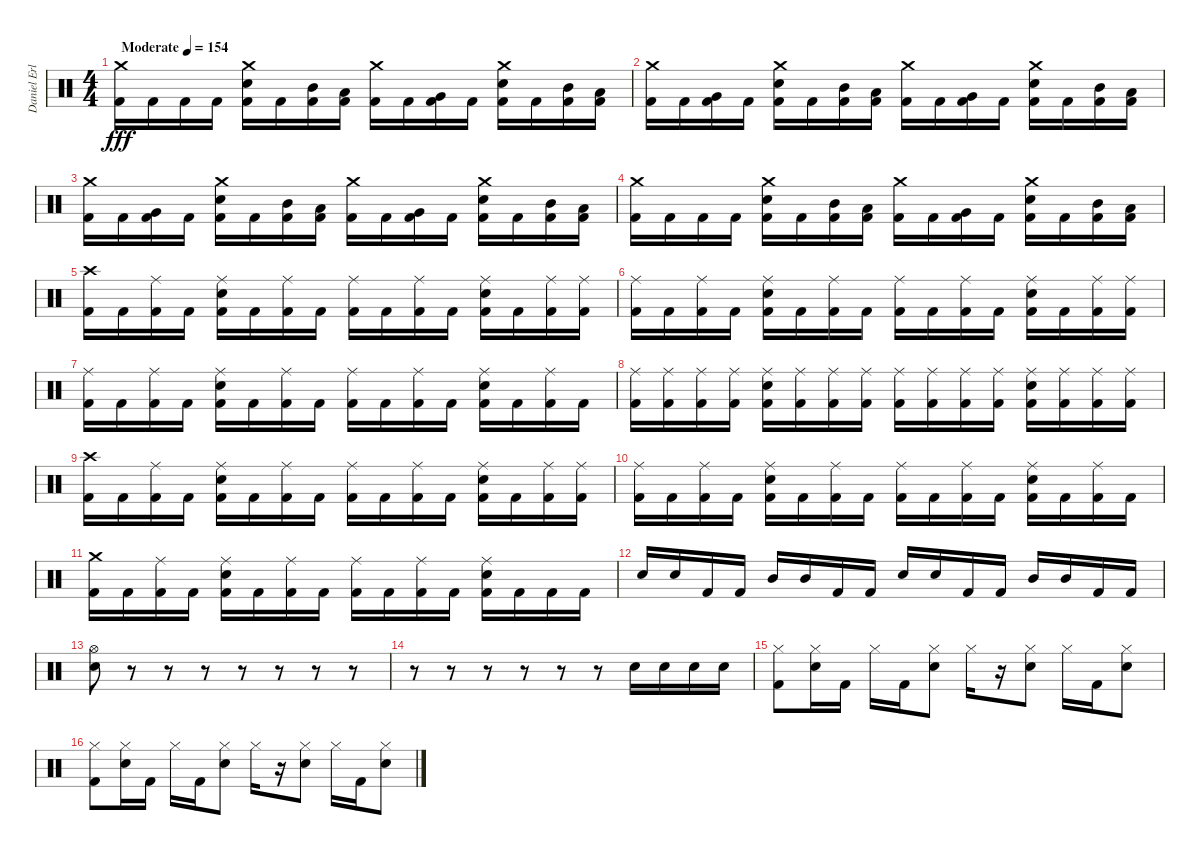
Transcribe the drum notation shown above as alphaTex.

\track ("Daniel Erlandsson" "Daniel Erl") {instrument percussion}
\staff {score}
\articulation defaults
\ts (4 4)
\tempo (154 "Moderate")
\clef neutral
\ks c
("Crash medium (hit)" "Kick (hit) 2").16{dy fff} "Kick (hit) 2".16 "Kick (hit) 2".16 "Kick (hit) 2".16 ("Crash medium (hit)" "Electric Snare (hit)" "Kick (hit) 2").16 "Kick (hit) 2".16 ("Mid Tom (hit)" "Kick (hit) 2").16 ("Low Tom (hit)" "Kick (hit) 2").16 ("Crash medium (hit)" "Kick (hit) 2").16 "Kick (hit) 2".16 ("Very Low Tom (hit)" "Kick (hit) 2").16 "Kick (hit) 2".16 ("Crash medium (hit)" "Electric Snare (hit)" "Kick (hit) 2").16 "Kick (hit) 2".16 ("Mid Tom (hit)" "Kick (hit) 2").16 ("Low Tom (hit)" "Kick (hit) 2").16 |
("Crash medium (hit)" "Kick (hit) 2").16 "Kick (hit) 2".16 ("Very Low Tom (hit)" "Kick (hit) 2").16 "Kick (hit) 2".16 ("Crash medium (hit)" "Electric Snare (hit)" "Kick (hit) 2").16 "Kick (hit) 2".16 ("Mid Tom (hit)" "Kick (hit) 2").16 ("Low Tom (hit)" "Kick (hit) 2").16 ("Crash medium (hit)" "Kick (hit) 2").16 "Kick (hit) 2".16 ("Very Low Tom (hit)" "Kick (hit) 2").16 "Kick (hit) 2".16 ("Crash medium (hit)" "Electric Snare (hit)" "Kick (hit) 2").16 "Kick (hit) 2".16 ("Mid Tom (hit)" "Kick (hit) 2").16 ("Low Tom (hit)" "Kick (hit) 2").16 |
("Crash medium (hit)" "Kick (hit) 2").16 "Kick (hit) 2".16 ("Very Low Tom (hit)" "Kick (hit) 2").16 "Kick (hit) 2".16 ("Crash medium (hit)" "Electric Snare (hit)" "Kick (hit) 2").16 "Kick (hit) 2".16 ("Mid Tom (hit)" "Kick (hit) 2").16 ("Low Tom (hit)" "Kick (hit) 2").16 ("Crash medium (hit)" "Kick (hit) 2").16 "Kick (hit) 2".16 ("Very Low Tom (hit)" "Kick (hit) 2").16 "Kick (hit) 2".16 ("Crash medium (hit)" "Electric Snare (hit)" "Kick (hit) 2").16 "Kick (hit) 2".16 ("Mid Tom (hit)" "Kick (hit) 2").16 ("Low Tom (hit)" "Kick (hit) 2").16 |
("Crash medium (hit)" "Kick (hit) 2").16 "Kick (hit) 2".16 "Kick (hit) 2".16 "Kick (hit) 2".16 ("Crash medium (hit)" "Electric Snare (hit)" "Kick (hit) 2").16 "Kick (hit) 2".16 ("Mid Tom (hit)" "Kick (hit) 2").16 ("Low Tom (hit)" "Kick (hit) 2").16 ("Crash medium (hit)" "Kick (hit) 2").16 "Kick (hit) 2".16 ("Very Low Tom (hit)" "Kick (hit) 2").16 "Kick (hit) 2".16 ("Crash medium (hit)" "Electric Snare (hit)" "Kick (hit) 2").16 "Kick (hit) 2".16 ("Mid Tom (hit)" "Kick (hit) 2").16 ("Low Tom (hit)" "Kick (hit) 2").16 |
("Crash high (hit)" "Kick (hit) 2").16 "Kick (hit) 2".16 ("Ride (middle)" "Kick (hit) 2").16 "Kick (hit) 2".16 ("Ride (middle)" "Electric Snare (hit)" "Kick (hit) 2").16 "Kick (hit) 2".16 ("Ride (middle)" "Kick (hit) 2").16 "Kick (hit) 2".16 ("Ride (middle)" "Kick (hit) 2").16 "Kick (hit) 2".16 ("Ride (middle)" "Kick (hit) 2").16 "Kick (hit) 2".16 ("Ride (middle)" "Electric Snare (hit)" "Kick (hit) 2").16 "Kick (hit) 2".16 ("Ride (middle)" "Kick (hit) 2").16 ("Ride (middle)" "Kick (hit) 2").16 |
("Ride (middle)" "Kick (hit) 2").16 "Kick (hit) 2".16 ("Ride (middle)" "Kick (hit) 2").16 "Kick (hit) 2".16 ("Ride (middle)" "Electric Snare (hit)" "Kick (hit) 2").16 "Kick (hit) 2".16 ("Ride (middle)" "Kick (hit) 2").16 "Kick (hit) 2".16 ("Ride (middle)" "Kick (hit) 2").16 "Kick (hit) 2".16 ("Ride (middle)" "Kick (hit) 2").16 "Kick (hit) 2".16 ("Ride (middle)" "Electric Snare (hit)" "Kick (hit) 2").16 "Kick (hit) 2".16 ("Ride (middle)" "Kick (hit) 2").16 ("Ride (middle)" "Kick (hit) 2").16 |
("Ride (middle)" "Kick (hit) 2").16 "Kick (hit) 2".16 ("Ride (middle)" "Kick (hit) 2").16 "Kick (hit) 2".16 ("Ride (middle)" "Electric Snare (hit)" "Kick (hit) 2").16 "Kick (hit) 2".16 ("Ride (middle)" "Kick (hit) 2").16 "Kick (hit) 2".16 ("Ride (middle)" "Kick (hit) 2").16 "Kick (hit) 2".16 ("Ride (middle)" "Kick (hit) 2").16 "Kick (hit) 2".16 ("Ride (middle)" "Electric Snare (hit)" "Kick (hit) 2").16 "Kick (hit) 2".16 ("Ride (middle)" "Kick (hit) 2").16 "Kick (hit) 2".16 |
("Ride (middle)" "Kick (hit) 2").16 ("Ride (middle)" "Kick (hit) 2").16 ("Ride (middle)" "Kick (hit) 2").16 ("Ride (middle)" "Kick (hit) 2").16 ("Ride (middle)" "Electric Snare (hit)" "Kick (hit) 2").16 ("Ride (middle)" "Kick (hit) 2").16 ("Ride (middle)" "Kick (hit) 2").16 ("Ride (middle)" "Kick (hit) 2").16 ("Ride (middle)" "Kick (hit) 2").16 ("Ride (middle)" "Kick (hit) 2").16 ("Ride (middle)" "Kick (hit) 2").16 ("Ride (middle)" "Kick (hit) 2").16 ("Ride (middle)" "Electric Snare (hit)" "Kick (hit) 2").16 ("Ride (middle)" "Kick (hit) 2").16 ("Ride (middle)" "Kick (hit) 2").16 ("Ride (middle)" "Kick (hit) 2").16 |
("Crash high (hit)" "Kick (hit) 2").16 "Kick (hit) 2".16 ("Ride (middle)" "Kick (hit) 2").16 "Kick (hit) 2".16 ("Ride (middle)" "Electric Snare (hit)" "Kick (hit) 2").16 "Kick (hit) 2".16 ("Ride (middle)" "Kick (hit) 2").16 "Kick (hit) 2".16 ("Ride (middle)" "Kick (hit) 2").16 "Kick (hit) 2".16 ("Ride (middle)" "Kick (hit) 2").16 "Kick (hit) 2".16 ("Ride (middle)" "Electric Snare (hit)" "Kick (hit) 2").16 "Kick (hit) 2".16 ("Ride (middle)" "Kick (hit) 2").16 ("Ride (middle)" "Kick (hit) 2").16 |
("Ride (middle)" "Kick (hit) 2").16 "Kick (hit) 2".16 ("Ride (middle)" "Kick (hit) 2").16 "Kick (hit) 2".16 ("Ride (middle)" "Electric Snare (hit)" "Kick (hit) 2").16 "Kick (hit) 2".16 ("Ride (middle)" "Kick (hit) 2").16 "Kick (hit) 2".16 ("Ride (middle)" "Kick (hit) 2").16 "Kick (hit) 2".16 ("Ride (middle)" "Kick (hit) 2").16 "Kick (hit) 2".16 ("Ride (middle)" "Electric Snare (hit)" "Kick (hit) 2").16 "Kick (hit) 2".16 ("Ride (middle)" "Kick (hit) 2").16 "Kick (hit) 2".16 |
("Crash medium (hit)" "Kick (hit) 2").16 "Kick (hit) 2".16 ("Ride (middle)" "Kick (hit) 2").16 "Kick (hit) 2".16 ("Ride (middle)" "Electric Snare (hit)" "Kick (hit) 2").16 "Kick (hit) 2".16 ("Ride (middle)" "Kick (hit) 2").16 "Kick (hit) 2".16 ("Ride (middle)" "Kick (hit) 2").16 "Kick (hit) 2".16 ("Ride (middle)" "Kick (hit) 2").16 "Kick (hit) 2".16 ("Ride (middle)" "Electric Snare (hit)" "Kick (hit) 2").16 "Kick (hit) 2".16 "Kick (hit) 2".16 "Kick (hit) 2".16 |
"Electric Snare (hit)".16 "Electric Snare (hit)".16 "Kick (hit) 2".16 "Kick (hit) 2".16 "Mid Tom (hit)".16 "Mid Tom (hit)".16 "Kick (hit) 2".16 "Kick (hit) 2".16 "Electric Snare (hit)".16 "Electric Snare (hit)".16 "Kick (hit) 2".16 "Kick (hit) 2".16 "Mid Tom (hit)".16 "Mid Tom (hit)".16 "Kick (hit) 2".16 "Kick (hit) 2".16 |
("Hi-Hat (open)" "Electric Snare (hit)").8 r.8 r.8 r.8 r.8 r.8 r.8 r.8 |
r.8 r.8 r.8 r.8 r.8 r.8 "Electric Snare (hit)".16 "Electric Snare (hit)".16 "Electric Snare (hit)".16 "Electric Snare (hit)".16 |
("Hi-Hat (closed)" "Kick (hit) 2").8 ("Hi-Hat (closed)" "Electric Snare (hit)").16 "Kick (hit) 2".16 "Hi-Hat (closed)".16 "Kick (hit) 2".16 ("Hi-Hat (closed)" "Electric Snare (hit)").8 "Hi-Hat (closed)".16 r.16 ("Hi-Hat (closed)" "Electric Snare (hit)").8 "Hi-Hat (closed)".16 "Kick (hit) 2".16 ("Hi-Hat (closed)" "Electric Snare (hit)").8 |
("Hi-Hat (closed)" "Kick (hit) 2").8 ("Hi-Hat (closed)" "Electric Snare (hit)").16 "Kick (hit) 2".16 "Hi-Hat (closed)".16 "Kick (hit) 2".16 ("Hi-Hat (closed)" "Electric Snare (hit)").8 "Hi-Hat (closed)".16 r.16 ("Hi-Hat (closed)" "Electric Snare (hit)").8 "Hi-Hat (closed)".16 "Kick (hit) 2".16 ("Hi-Hat (closed)" "Electric Snare (hit)").8
